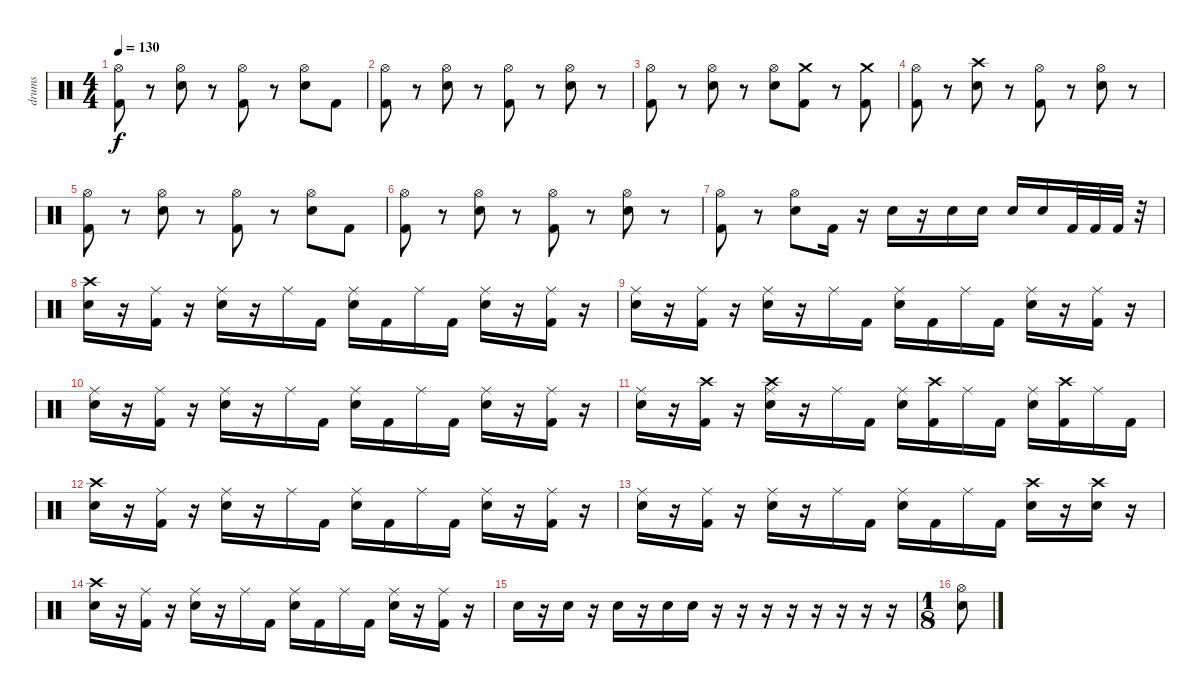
\track ("drums" "drums") {instrument percussion}
\staff {score}
\articulation defaults
\ts (4 4)
\tempo 130
\clef neutral
\ks c
("Hi-Hat (open)" "Kick (hit) 2").8{dy f} r.8 ("Hi-Hat (open)" "Snare (hit) 2").8 r.8 ("Hi-Hat (open)" "Kick (hit) 2").8 r.8 ("Hi-Hat (open)" "Snare (hit) 2").8 "Kick (hit) 2".8 |
("Hi-Hat (open)" "Kick (hit) 2").8 r.8 ("Hi-Hat (open)" "Snare (hit) 2").8 r.8 ("Hi-Hat (open)" "Kick (hit) 2").8 r.8 ("Hi-Hat (open)" "Snare (hit) 2").8 r.8 |
("Hi-Hat (open)" "Kick (hit) 2").8 r.8 ("Hi-Hat (open)" "Snare (hit) 2").8 r.8 ("Hi-Hat (open)" "Snare (hit) 2").8 ("Crash medium (hit)" "Kick (hit) 2").8 r.8 ("Crash medium (hit)" "Kick (hit) 2").8 |
("Hi-Hat (open)" "Kick (hit) 2").8 r.8 ("Crash high (hit)" "Snare (hit) 2").8 r.8 ("Hi-Hat (open)" "Kick (hit) 2").8 r.8 ("Hi-Hat (open)" "Snare (hit) 2").8 r.8 |
("Hi-Hat (open)" "Kick (hit) 2").8 r.8 ("Hi-Hat (open)" "Snare (hit) 2").8 r.8 ("Hi-Hat (open)" "Kick (hit) 2").8 r.8 ("Hi-Hat (open)" "Snare (hit) 2").8 "Kick (hit) 2".8 |
("Hi-Hat (open)" "Kick (hit) 2").8 r.8 ("Hi-Hat (open)" "Snare (hit) 2").8 r.8 ("Hi-Hat (open)" "Kick (hit) 2").8 r.8 ("Hi-Hat (open)" "Snare (hit) 2").8 r.8 |
("Hi-Hat (open)" "Kick (hit) 2").8 r.8 ("Hi-Hat (open)" "Snare (hit) 2").8 "Kick (hit) 2".16 r.16 "Snare (hit) 2".16 r.16 "Snare (hit) 2".16 "Snare (hit) 2".16 "Snare (hit) 2".16 "Snare (hit) 2".16 "Kick (hit) 2".32 "Kick (hit) 2".32 "Kick (hit) 2".32 r.32 |
("Crash high (hit)" "Snare (hit) 2").16 r.16 ("Ride (middle)" "Kick (hit) 2").16 r.16 ("Ride (middle)" "Snare (hit) 2").16 r.16 "Ride (middle)".16 "Kick (hit) 2".16 ("Ride (middle)" "Snare (hit) 2").16 "Kick (hit) 2".16 "Ride (middle)".16 "Kick (hit) 2".16 ("Ride (middle)" "Snare (hit) 2").16 r.16 ("Ride (middle)" "Kick (hit) 2").16 r.16 |
("Ride (middle)" "Snare (hit) 2").16 r.16 ("Ride (middle)" "Kick (hit) 2").16 r.16 ("Ride (middle)" "Snare (hit) 2").16 r.16 "Ride (middle)".16 "Kick (hit) 2".16 ("Ride (middle)" "Snare (hit) 2").16 "Kick (hit) 2".16 "Ride (middle)".16 "Kick (hit) 2".16 ("Ride (middle)" "Snare (hit) 2").16 r.16 ("Ride (middle)" "Kick (hit) 2").16 r.16 |
("Ride (middle)" "Snare (hit) 2").16 r.16 ("Ride (middle)" "Kick (hit) 2").16 r.16 ("Ride (middle)" "Snare (hit) 2").16 r.16 "Ride (middle)".16 "Kick (hit) 2".16 ("Ride (middle)" "Snare (hit) 2").16 "Kick (hit) 2".16 "Ride (middle)".16 "Kick (hit) 2".16 ("Ride (middle)" "Snare (hit) 2").16 r.16 ("Ride (middle)" "Kick (hit) 2").16 r.16 |
("Ride (middle)" "Snare (hit) 2").16 r.16 ("Crash high (hit)" "Kick (hit) 2").16 r.16 ("Ride (middle)" "Crash high (hit)" "Snare (hit) 2").16 r.16 "Ride (middle)".16 "Kick (hit) 2".16 ("Ride (middle)" "Snare (hit) 2").16 ("Crash high (hit)" "Kick (hit) 2").16 "Ride (middle)".16 "Kick (hit) 2".16 ("Ride (middle)" "Snare (hit) 2").16 ("Crash high (hit)" "Kick (hit) 2").16 "Ride (middle)".16 "Kick (hit) 2".16 |
("Crash high (hit)" "Snare (hit) 2").16 r.16 ("Ride (middle)" "Kick (hit) 2").16 r.16 ("Ride (middle)" "Snare (hit) 2").16 r.16 "Ride (middle)".16 "Kick (hit) 2".16 ("Ride (middle)" "Snare (hit) 2").16 "Kick (hit) 2".16 "Ride (middle)".16 "Kick (hit) 2".16 ("Ride (middle)" "Snare (hit) 2").16 r.16 ("Ride (middle)" "Kick (hit) 2").16 r.16 |
("Ride (middle)" "Snare (hit) 2").16 r.16 ("Ride (middle)" "Kick (hit) 2").16 r.16 ("Ride (middle)" "Snare (hit) 2").16 r.16 "Ride (middle)".16 "Kick (hit) 2".16 ("Ride (middle)" "Snare (hit) 2").16 "Kick (hit) 2".16 "Ride (middle)".16 "Kick (hit) 2".16 ("Crash high (hit)" "Snare (hit) 2").16 r.16 ("Crash high (hit)" "Snare (hit) 2").16 r.16 |
("Crash high (hit)" "Snare (hit) 2").16 r.16 ("Ride (middle)" "Kick (hit) 2").16 r.16 ("Ride (middle)" "Snare (hit) 2").16 r.16 "Ride (middle)".16 "Kick (hit) 2".16 ("Ride (middle)" "Snare (hit) 2").16 "Kick (hit) 2".16 "Ride (middle)".16 "Kick (hit) 2".16 ("Ride (middle)" "Snare (hit) 2").16 r.16 ("Ride (middle)" "Kick (hit) 2").16 r.16 |
"Snare (hit) 2".16 r.16 "Snare (hit) 2".16 r.16 "Snare (hit) 2".16 r.16 "Snare (hit) 2".16 "Snare (hit) 2".16 r.16 r.16 r.16 r.16 r.16 r.16 r.16 r.16 |
\ts (1 8)
("Hi-Hat (open)" "Snare (hit) 2").8
